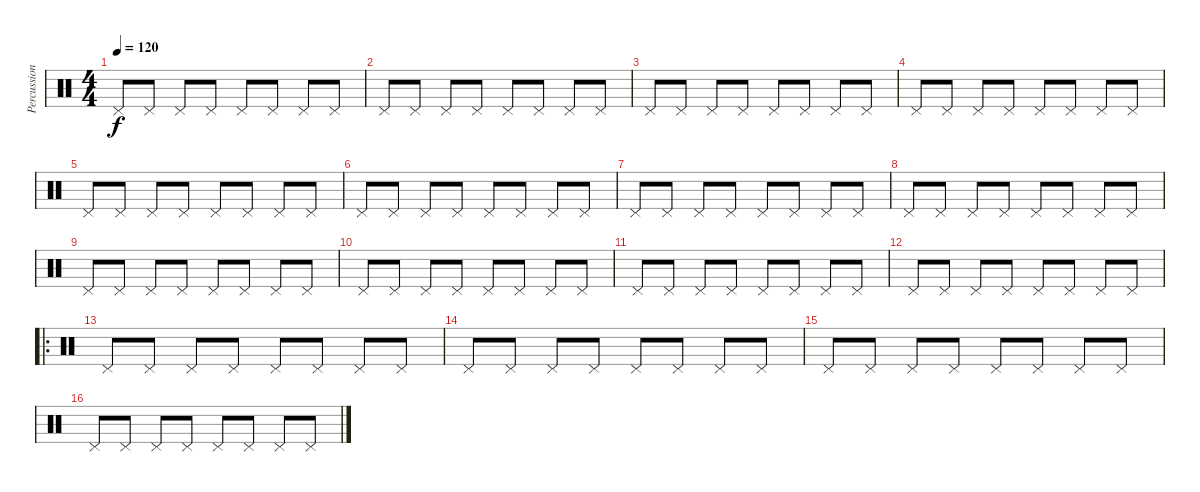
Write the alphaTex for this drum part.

\track ("Percussion" "Percussion") {instrument percussion}
\staff {score}
\articulation defaults
\ts (4 4)
\tempo 120
\clef neutral
\ks c "Pedal Hi-Hat (hit)".8{dy f} "Pedal Hi-Hat (hit)".8 "Pedal Hi-Hat (hit)".8 "Pedal Hi-Hat (hit)".8 "Pedal Hi-Hat (hit)".8 "Pedal Hi-Hat (hit)".8 "Pedal Hi-Hat (hit)".8 "Pedal Hi-Hat (hit)".8
|
"Pedal Hi-Hat (hit)".8 "Pedal Hi-Hat (hit)".8 "Pedal Hi-Hat (hit)".8 "Pedal Hi-Hat (hit)".8 "Pedal Hi-Hat (hit)".8 "Pedal Hi-Hat (hit)".8 "Pedal Hi-Hat (hit)".8 "Pedal Hi-Hat (hit)".8 |
"Pedal Hi-Hat (hit)".8 "Pedal Hi-Hat (hit)".8 "Pedal Hi-Hat (hit)".8 "Pedal Hi-Hat (hit)".8 "Pedal Hi-Hat (hit)".8 "Pedal Hi-Hat (hit)".8 "Pedal Hi-Hat (hit)".8 "Pedal Hi-Hat (hit)".8 |
"Pedal Hi-Hat (hit)".8 "Pedal Hi-Hat (hit)".8 "Pedal Hi-Hat (hit)".8 "Pedal Hi-Hat (hit)".8 "Pedal Hi-Hat (hit)".8 "Pedal Hi-Hat (hit)".8 "Pedal Hi-Hat (hit)".8 "Pedal Hi-Hat (hit)".8 |
"Pedal Hi-Hat (hit)".8 "Pedal Hi-Hat (hit)".8 "Pedal Hi-Hat (hit)".8 "Pedal Hi-Hat (hit)".8 "Pedal Hi-Hat (hit)".8 "Pedal Hi-Hat (hit)".8 "Pedal Hi-Hat (hit)".8 "Pedal Hi-Hat (hit)".8 |
"Pedal Hi-Hat (hit)".8 "Pedal Hi-Hat (hit)".8 "Pedal Hi-Hat (hit)".8 "Pedal Hi-Hat (hit)".8 "Pedal Hi-Hat (hit)".8 "Pedal Hi-Hat (hit)".8 "Pedal Hi-Hat (hit)".8 "Pedal Hi-Hat (hit)".8 |
"Pedal Hi-Hat (hit)".8 "Pedal Hi-Hat (hit)".8 "Pedal Hi-Hat (hit)".8 "Pedal Hi-Hat (hit)".8 "Pedal Hi-Hat (hit)".8 "Pedal Hi-Hat (hit)".8 "Pedal Hi-Hat (hit)".8 "Pedal Hi-Hat (hit)".8 |
"Pedal Hi-Hat (hit)".8 "Pedal Hi-Hat (hit)".8 "Pedal Hi-Hat (hit)".8 "Pedal Hi-Hat (hit)".8 "Pedal Hi-Hat (hit)".8 "Pedal Hi-Hat (hit)".8 "Pedal Hi-Hat (hit)".8 "Pedal Hi-Hat (hit)".8 |
"Pedal Hi-Hat (hit)".8 "Pedal Hi-Hat (hit)".8 "Pedal Hi-Hat (hit)".8 "Pedal Hi-Hat (hit)".8 "Pedal Hi-Hat (hit)".8 "Pedal Hi-Hat (hit)".8 "Pedal Hi-Hat (hit)".8 "Pedal Hi-Hat (hit)".8 |
"Pedal Hi-Hat (hit)".8 "Pedal Hi-Hat (hit)".8 "Pedal Hi-Hat (hit)".8 "Pedal Hi-Hat (hit)".8 "Pedal Hi-Hat (hit)".8 "Pedal Hi-Hat (hit)".8 "Pedal Hi-Hat (hit)".8 "Pedal Hi-Hat (hit)".8 |
"Pedal Hi-Hat (hit)".8 "Pedal Hi-Hat (hit)".8 "Pedal Hi-Hat (hit)".8 "Pedal Hi-Hat (hit)".8 "Pedal Hi-Hat (hit)".8 "Pedal Hi-Hat (hit)".8 "Pedal Hi-Hat (hit)".8 "Pedal Hi-Hat (hit)".8 |
"Pedal Hi-Hat (hit)".8 "Pedal Hi-Hat (hit)".8 "Pedal Hi-Hat (hit)".8 "Pedal Hi-Hat (hit)".8 "Pedal Hi-Hat (hit)".8 "Pedal Hi-Hat (hit)".8 "Pedal Hi-Hat (hit)".8 "Pedal Hi-Hat (hit)".8 |
\ro "Pedal Hi-Hat (hit)".8 "Pedal Hi-Hat (hit)".8 "Pedal Hi-Hat (hit)".8 "Pedal Hi-Hat (hit)".8 "Pedal Hi-Hat (hit)".8 "Pedal Hi-Hat (hit)".8 "Pedal Hi-Hat (hit)".8 "Pedal Hi-Hat (hit)".8
|
"Pedal Hi-Hat (hit)".8 "Pedal Hi-Hat (hit)".8 "Pedal Hi-Hat (hit)".8 "Pedal Hi-Hat (hit)".8 "Pedal Hi-Hat (hit)".8 "Pedal Hi-Hat (hit)".8 "Pedal Hi-Hat (hit)".8 "Pedal Hi-Hat (hit)".8 |
"Pedal Hi-Hat (hit)".8 "Pedal Hi-Hat (hit)".8 "Pedal Hi-Hat (hit)".8 "Pedal Hi-Hat (hit)".8 "Pedal Hi-Hat (hit)".8 "Pedal Hi-Hat (hit)".8 "Pedal Hi-Hat (hit)".8 "Pedal Hi-Hat (hit)".8 |
"Pedal Hi-Hat (hit)".8 "Pedal Hi-Hat (hit)".8 "Pedal Hi-Hat (hit)".8 "Pedal Hi-Hat (hit)".8 "Pedal Hi-Hat (hit)".8 "Pedal Hi-Hat (hit)".8 "Pedal Hi-Hat (hit)".8 "Pedal Hi-Hat (hit)".8
